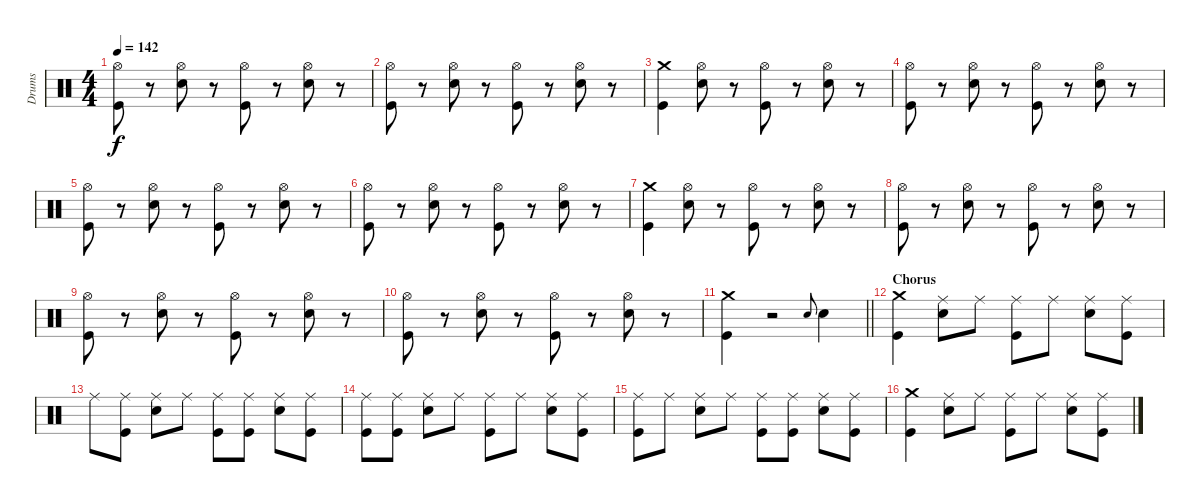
\track ("Drums" "Drums") {instrument percussion}
\staff {score}
\articulation defaults
\ts (4 4)
\tempo 142
\clef neutral
\ks c
("Hi-Hat (open)" "Kick (hit)").8{dy f} r.8 ("Hi-Hat (open)" "Electric Snare (hit)").8 r.8 ("Hi-Hat (open)" "Kick (hit)").8 r.8 ("Hi-Hat (open)" "Electric Snare (hit)").8 r.8 |
("Hi-Hat (open)" "Kick (hit)").8 r.8 ("Hi-Hat (open)" "Electric Snare (hit)").8 r.8 ("Hi-Hat (open)" "Kick (hit)").8 r.8 ("Hi-Hat (open)" "Electric Snare (hit)").8 r.8 |
("Crash medium (hit)" "Kick (hit)").4 ("Hi-Hat (open)" "Electric Snare (hit)").8 r.8 ("Hi-Hat (open)" "Kick (hit)").8 r.8 ("Hi-Hat (open)" "Electric Snare (hit)").8 r.8 |
("Hi-Hat (open)" "Kick (hit)").8 r.8 ("Hi-Hat (open)" "Electric Snare (hit)").8 r.8 ("Hi-Hat (open)" "Kick (hit)").8 r.8 ("Hi-Hat (open)" "Electric Snare (hit)").8 r.8 |
("Hi-Hat (open)" "Kick (hit)").8 r.8 ("Hi-Hat (open)" "Electric Snare (hit)").8 r.8 ("Hi-Hat (open)" "Kick (hit)").8 r.8 ("Hi-Hat (open)" "Electric Snare (hit)").8 r.8 |
("Hi-Hat (open)" "Kick (hit)").8 r.8 ("Hi-Hat (open)" "Electric Snare (hit)").8 r.8 ("Hi-Hat (open)" "Kick (hit)").8 r.8 ("Hi-Hat (open)" "Electric Snare (hit)").8 r.8 |
("Crash medium (hit)" "Kick (hit)").4 ("Hi-Hat (open)" "Electric Snare (hit)").8 r.8 ("Hi-Hat (open)" "Kick (hit)").8 r.8 ("Hi-Hat (open)" "Electric Snare (hit)").8 r.8 |
("Hi-Hat (open)" "Kick (hit)").8 r.8 ("Hi-Hat (open)" "Electric Snare (hit)").8 r.8 ("Hi-Hat (open)" "Kick (hit)").8 r.8 ("Hi-Hat (open)" "Electric Snare (hit)").8 r.8 |
("Hi-Hat (open)" "Kick (hit)").8 r.8 ("Hi-Hat (open)" "Electric Snare (hit)").8 r.8 ("Hi-Hat (open)" "Kick (hit)").8 r.8 ("Hi-Hat (open)" "Electric Snare (hit)").8 r.8 |
("Hi-Hat (open)" "Kick (hit)").8 r.8 ("Hi-Hat (open)" "Electric Snare (hit)").8 r.8 ("Hi-Hat (open)" "Kick (hit)").8 r.8 ("Hi-Hat (open)" "Electric Snare (hit)").8 r.8 |
\barLineRight lightlight
("Crash medium (hit)" "Kick (hit)").4 r.2 "Electric Snare (hit)".8{gr onbeat} "Electric Snare (hit)".4 |
\section ("" "Chorus")
("Crash medium (hit)" "Kick (hit)").4 ("Ride (middle)" "Electric Snare (hit)").8 "Ride (middle)".8 ("Ride (middle)" "Kick (hit)").8 "Ride (middle)".8 ("Ride (middle)" "Electric Snare (hit)").8 ("Ride (middle)" "Kick (hit)").8 |
"Ride (middle)".8 ("Ride (middle)" "Kick (hit)").8 ("Ride (middle)" "Electric Snare (hit)").8 "Ride (middle)".8 ("Ride (middle)" "Kick (hit)").8 ("Ride (middle)" "Kick (hit)").8 ("Ride (middle)" "Electric Snare (hit)").8 ("Ride (middle)" "Kick (hit)").8 |
("Ride (middle)" "Kick (hit)").8 ("Ride (middle)" "Kick (hit)").8 ("Ride (middle)" "Electric Snare (hit)").8 "Ride (middle)".8 ("Ride (middle)" "Kick (hit)").8 "Ride (middle)".8 ("Ride (middle)" "Electric Snare (hit)").8 ("Ride (middle)" "Kick (hit)").8 |
("Ride (middle)" "Kick (hit)").8 "Ride (middle)".8 ("Ride (middle)" "Electric Snare (hit)").8 "Ride (middle)".8 ("Ride (middle)" "Kick (hit)").8 ("Ride (middle)" "Kick (hit)").8 ("Ride (middle)" "Electric Snare (hit)").8 ("Ride (middle)" "Kick (hit)").8 |
("Crash medium (hit)" "Kick (hit)").4 ("Ride (middle)" "Electric Snare (hit)").8 "Ride (middle)".8 ("Ride (middle)" "Kick (hit)").8 "Ride (middle)".8 ("Ride (middle)" "Electric Snare (hit)").8 ("Ride (middle)" "Kick (hit)").8
